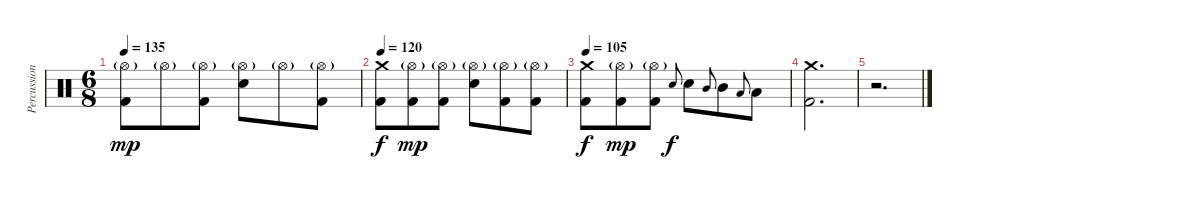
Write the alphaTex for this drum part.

\track ("Percussion" "Percussion") {instrument percussion}
\staff {score}
\articulation defaults
\ts (6 8)
\tempo 135
\clef neutral
\ks c
("Hi-Hat (open)"{g} "Kick (hit) 2").8{dy mp} "Hi-Hat (open)"{g}.8 ("Hi-Hat (open)"{g} "Kick (hit) 2").8 ("Hi-Hat (open)"{g} "Electric Snare (hit)").8 "Hi-Hat (open)"{g}.8 ("Hi-Hat (open)"{g} "Kick (hit) 2").8 |
\tempo 120
("Crash medium (hit)" "Kick (hit) 2").8{dy f} ("Hi-Hat (open)"{g} "Kick (hit) 2").8{dy mp} ("Hi-Hat (open)"{g} "Kick (hit) 2").8 ("Hi-Hat (open)"{g} "Electric Snare (hit)").8 ("Hi-Hat (open)"{g} "Kick (hit) 2").8 ("Hi-Hat (open)"{g} "Kick (hit) 2").8 |
\tempo 105
("Crash medium (hit)" "Kick (hit) 2").8{dy f} ("Hi-Hat (open)"{g} "Kick (hit) 2").8{dy mp} ("Hi-Hat (open)"{g} "Kick (hit) 2").8 "Electric Snare (hit)".8{gr onbeat dy f} "Electric Snare (hit)".8 "Mid Tom (hit)".8{gr onbeat} "Mid Tom (hit)".8 "Low Tom (hit)".8{gr onbeat} "Low Tom (hit)".8 |
("Crash medium (hit)" "Kick (hit) 2").2{d} |
r.2{d}
